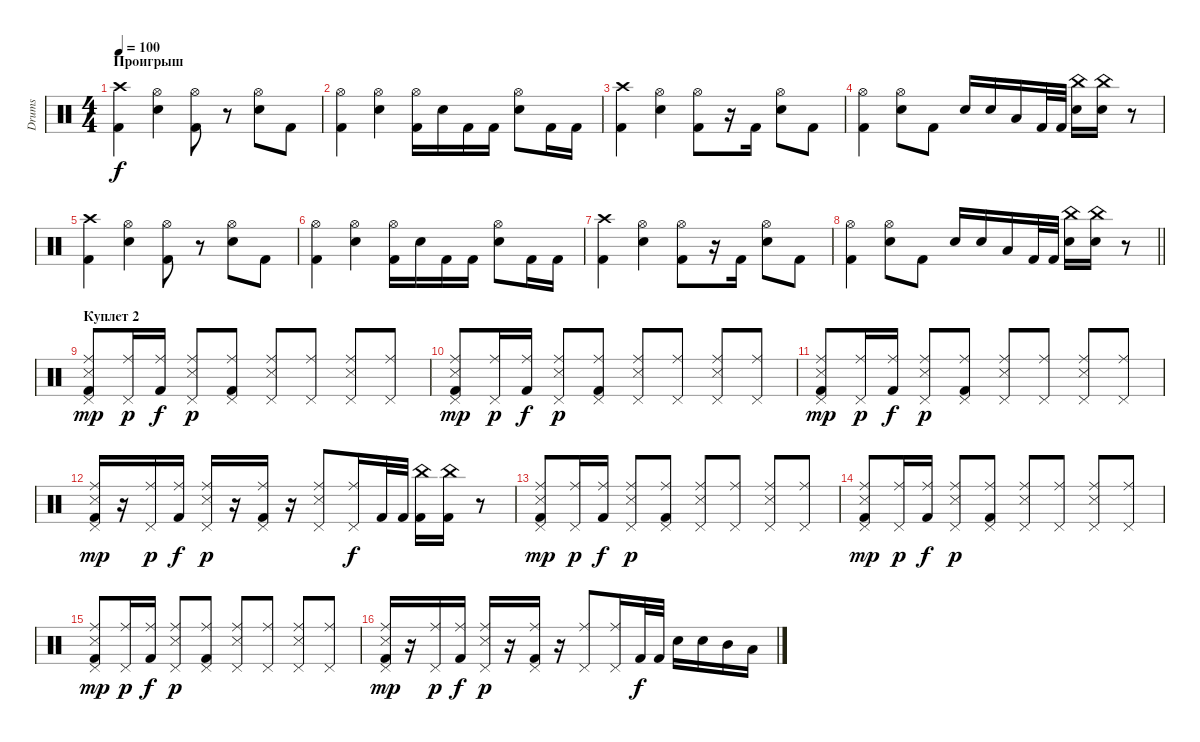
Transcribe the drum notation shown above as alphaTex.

\track ("Drums" "Drums") {instrument percussion}
\staff {score}
\articulation defaults
\ts (4 4)
\section ("" "Проигрыш")
\tempo 100
\clef neutral
\ks c
("Crash high (hit)" "Kick (hit) 2").4{dy f} ("Hi-Hat (open)" "Snare (hit) 2").4 ("Hi-Hat (open)" "Kick (hit) 2").8 r.8 ("Hi-Hat (open)" "Snare (hit) 2").8 "Kick (hit) 2".8 |
("Hi-Hat (open)" "Kick (hit) 2").4 ("Hi-Hat (open)" "Snare (hit) 2").4 ("Hi-Hat (open)" "Kick (hit) 2").16 "Snare (hit) 2".16 "Kick (hit) 2".16 "Kick (hit) 2".16 ("Hi-Hat (open)" "Snare (hit) 2").8 "Kick (hit) 2".16 "Kick (hit) 2".16 |
("Crash high (hit)" "Kick (hit) 2").4 ("Hi-Hat (open)" "Snare (hit) 2").4 ("Hi-Hat (open)" "Kick (hit) 2").8 r.16 "Kick (hit) 2".16 ("Hi-Hat (open)" "Snare (hit) 2").8 "Kick (hit) 2".8 |
("Hi-Hat (open)" "Kick (hit) 2").4 ("Hi-Hat (open)" "Snare (hit) 2").8 "Kick (hit) 2".8 "Snare (hit) 2".16 "Snare (hit) 2".16 "Low Tom (hit)".16 "Kick (hit) 2".32 "Kick (hit) 2".32 ("China (hit)" "Snare (hit) 2").16 ("China (hit)" "Snare (hit) 2").16 r.8 |
("Crash high (hit)" "Kick (hit) 2").4 ("Hi-Hat (open)" "Snare (hit) 2").4 ("Hi-Hat (open)" "Kick (hit) 2").8 r.8 ("Hi-Hat (open)" "Snare (hit) 2").8 "Kick (hit) 2".8 |
("Hi-Hat (open)" "Kick (hit) 2").4 ("Hi-Hat (open)" "Snare (hit) 2").4 ("Hi-Hat (open)" "Kick (hit) 2").16 "Snare (hit) 2".16 "Kick (hit) 2".16 "Kick (hit) 2".16 ("Hi-Hat (open)" "Snare (hit) 2").8 "Kick (hit) 2".16 "Kick (hit) 2".16 |
("Crash high (hit)" "Kick (hit) 2").4 ("Hi-Hat (open)" "Snare (hit) 2").4 ("Hi-Hat (open)" "Kick (hit) 2").8 r.16 "Kick (hit) 2".16 ("Hi-Hat (open)" "Snare (hit) 2").8 "Kick (hit) 2".8 |
\barLineRight lightlight
("Hi-Hat (open)" "Kick (hit) 2").4 ("Hi-Hat (open)" "Snare (hit) 2").8 "Kick (hit) 2".8 "Snare (hit) 2".16 "Snare (hit) 2".16 "Low Tom (hit)".16 "Kick (hit) 2".32 "Kick (hit) 2".32 ("China (hit)" "Snare (hit) 2").16 ("China (hit)" "Snare (hit) 2").16 r.8 |
\section ("" "Куплет 2")
("Ride (middle)" "Pedal Hi-Hat (hit)" "Snare (side stick) 3" "Kick (hit) 2").8{dy mp} ("Ride (middle)" "Pedal Hi-Hat (hit)").16{dy p} ("Ride (middle)" "Kick (hit) 2").16{dy f} ("Ride (middle)" "Pedal Hi-Hat (hit)" "Snare (side stick) 3").8{dy p} ("Ride (middle)" "Pedal Hi-Hat (hit)" "Kick (hit) 2").8 ("Ride (middle)" "Pedal Hi-Hat (hit)" "Snare (side stick) 3").8 ("Ride (middle)" "Pedal Hi-Hat (hit)").8 ("Ride (middle)" "Pedal Hi-Hat (hit)" "Snare (side stick) 3").8 ("Ride (middle)" "Pedal Hi-Hat (hit)").8 |
("Ride (middle)" "Pedal Hi-Hat (hit)" "Snare (side stick) 3" "Kick (hit) 2").8{dy mp} ("Ride (middle)" "Pedal Hi-Hat (hit)").16{dy p} ("Ride (middle)" "Kick (hit) 2").16{dy f} ("Ride (middle)" "Pedal Hi-Hat (hit)" "Snare (side stick) 3").8{dy p} ("Ride (middle)" "Pedal Hi-Hat (hit)" "Kick (hit) 2").8 ("Ride (middle)" "Pedal Hi-Hat (hit)" "Snare (side stick) 3").8 ("Ride (middle)" "Pedal Hi-Hat (hit)").8 ("Ride (middle)" "Pedal Hi-Hat (hit)" "Snare (side stick) 3").8 ("Ride (middle)" "Pedal Hi-Hat (hit)").8 |
("Ride (middle)" "Pedal Hi-Hat (hit)" "Snare (side stick) 3" "Kick (hit) 2").8{dy mp} ("Ride (middle)" "Pedal Hi-Hat (hit)").16{dy p} ("Ride (middle)" "Kick (hit) 2").16{dy f} ("Ride (middle)" "Pedal Hi-Hat (hit)" "Snare (side stick) 3").8{dy p} ("Ride (middle)" "Pedal Hi-Hat (hit)" "Kick (hit) 2").8 ("Ride (middle)" "Pedal Hi-Hat (hit)" "Snare (side stick) 3").8 ("Ride (middle)" "Pedal Hi-Hat (hit)").8 ("Ride (middle)" "Pedal Hi-Hat (hit)" "Snare (side stick) 3").8 ("Ride (middle)" "Pedal Hi-Hat (hit)").8 |
("Ride (middle)" "Pedal Hi-Hat (hit)" "Snare (side stick) 3" "Kick (hit) 2").16{dy mp} r.16 ("Ride (middle)" "Pedal Hi-Hat (hit)").16{dy p} ("Ride (middle)" "Kick (hit) 2").16{dy f} ("Ride (middle)" "Pedal Hi-Hat (hit)" "Snare (side stick) 3").16{dy p} r.16 ("Ride (middle)" "Pedal Hi-Hat (hit)" "Kick (hit) 2").16 r.16 ("Ride (middle)" "Pedal Hi-Hat (hit)" "Snare (side stick) 3").8 ("Ride (middle)" "Pedal Hi-Hat (hit)").16{dy f} "Kick (hit) 2".32 "Kick (hit) 2".32 ("China (hit)" "Kick (hit) 2").16 ("China (hit)" "Kick (hit) 2").16 r.8 |
("Ride (middle)" "Pedal Hi-Hat (hit)" "Snare (side stick) 3" "Kick (hit) 2").8{dy mp} ("Ride (middle)" "Pedal Hi-Hat (hit)").16{dy p} ("Ride (middle)" "Kick (hit) 2").16{dy f} ("Ride (middle)" "Pedal Hi-Hat (hit)" "Snare (side stick) 3").8{dy p} ("Ride (middle)" "Pedal Hi-Hat (hit)" "Kick (hit) 2").8 ("Ride (middle)" "Pedal Hi-Hat (hit)" "Snare (side stick) 3").8 ("Ride (middle)" "Pedal Hi-Hat (hit)").8 ("Ride (middle)" "Pedal Hi-Hat (hit)" "Snare (side stick) 3").8 ("Ride (middle)" "Pedal Hi-Hat (hit)").8 |
("Ride (middle)" "Pedal Hi-Hat (hit)" "Snare (side stick) 3" "Kick (hit) 2").8{dy mp} ("Ride (middle)" "Pedal Hi-Hat (hit)").16{dy p} ("Ride (middle)" "Kick (hit) 2").16{dy f} ("Ride (middle)" "Pedal Hi-Hat (hit)" "Snare (side stick) 3").8{dy p} ("Ride (middle)" "Pedal Hi-Hat (hit)" "Kick (hit) 2").8 ("Ride (middle)" "Pedal Hi-Hat (hit)" "Snare (side stick) 3").8 ("Ride (middle)" "Pedal Hi-Hat (hit)").8 ("Ride (middle)" "Pedal Hi-Hat (hit)" "Snare (side stick) 3").8 ("Ride (middle)" "Pedal Hi-Hat (hit)").8 |
("Ride (middle)" "Pedal Hi-Hat (hit)" "Snare (side stick) 3" "Kick (hit) 2").8{dy mp} ("Ride (middle)" "Pedal Hi-Hat (hit)").16{dy p} ("Ride (middle)" "Kick (hit) 2").16{dy f} ("Ride (middle)" "Pedal Hi-Hat (hit)" "Snare (side stick) 3").8{dy p} ("Ride (middle)" "Pedal Hi-Hat (hit)" "Kick (hit) 2").8 ("Ride (middle)" "Pedal Hi-Hat (hit)" "Snare (side stick) 3").8 ("Ride (middle)" "Pedal Hi-Hat (hit)").8 ("Ride (middle)" "Pedal Hi-Hat (hit)" "Snare (side stick) 3").8 ("Ride (middle)" "Pedal Hi-Hat (hit)").8 |
("Ride (middle)" "Pedal Hi-Hat (hit)" "Snare (side stick) 3" "Kick (hit) 2").16{dy mp} r.16 ("Ride (middle)" "Pedal Hi-Hat (hit)").16{dy p} ("Ride (middle)" "Kick (hit) 2").16{dy f} ("Ride (middle)" "Pedal Hi-Hat (hit)" "Snare (side stick) 3").16{dy p} r.16 ("Ride (middle)" "Pedal Hi-Hat (hit)" "Kick (hit) 2").16 r.16 ("Ride (middle)" "Pedal Hi-Hat (hit)").8 ("Ride (middle)" "Pedal Hi-Hat (hit)").16 "Kick (hit) 2".32{dy f} "Kick (hit) 2".32 "Snare (hit) 2".16 "Snare (hit) 2".16 "Mid Tom (hit)".16 "Low Tom (hit)".16
